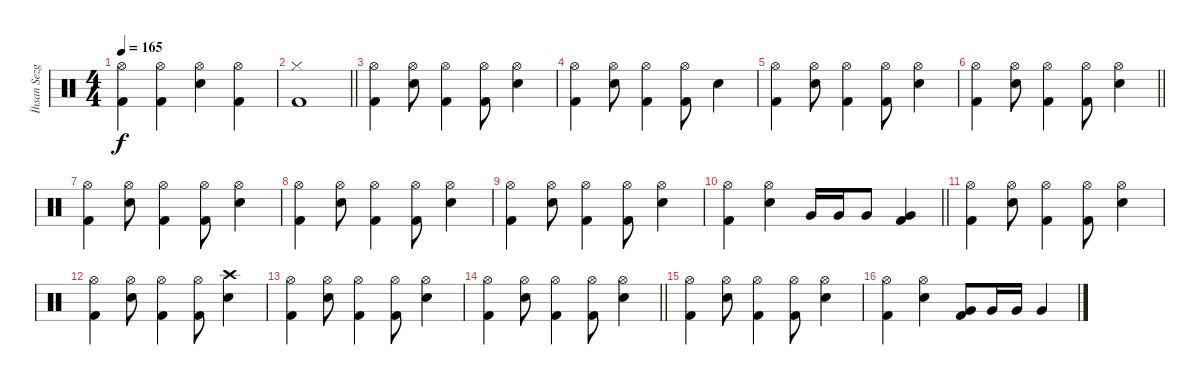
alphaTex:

\track ("İhsan Sezgin" "İhsan Sezg") {instrument percussion}
\staff {score}
\articulation defaults
\ts (4 4)
\tempo 165
\clef neutral
\ks c
("Hi-Hat (open)" "Kick (hit) 2").4{dy f} ("Hi-Hat (open)" "Kick (hit) 2").4 ("Hi-Hat (open)" "Snare (hit) 2").4 ("Hi-Hat (open)" "Kick (hit) 2").4 |
\barLineRight lightlight
("Hi-Hat (closed)" "Kick (hit) 2").1 |
("Hi-Hat (open)" "Kick (hit) 2").4 ("Snare (hit) 2" "Hi-Hat (open)").8 ("Hi-Hat (open)" "Kick (hit) 2").4 ("Hi-Hat (open)" "Kick (hit) 2").8 ("Snare (hit) 2" "Hi-Hat (open)").4 |
("Hi-Hat (open)" "Kick (hit) 2").4 ("Snare (hit) 2" "Hi-Hat (open)").8 ("Hi-Hat (open)" "Kick (hit) 2").4 ("Hi-Hat (open)" "Kick (hit) 2").8 "Snare (hit) 2".4 |
("Hi-Hat (open)" "Kick (hit) 2").4 ("Snare (hit) 2" "Hi-Hat (open)").8 ("Hi-Hat (open)" "Kick (hit) 2").4 ("Hi-Hat (open)" "Kick (hit) 2").8 ("Snare (hit) 2" "Hi-Hat (open)").4 |
\barLineRight lightlight
("Hi-Hat (open)" "Kick (hit) 2").4 ("Snare (hit) 2" "Hi-Hat (open)").8 ("Hi-Hat (open)" "Kick (hit) 2").4 ("Hi-Hat (open)" "Kick (hit) 2").8 ("Snare (hit) 2" "Hi-Hat (open)").4 |
("Hi-Hat (open)" "Kick (hit) 2").4 ("Snare (hit) 2" "Hi-Hat (open)").8 ("Hi-Hat (open)" "Kick (hit) 2").4 ("Hi-Hat (open)" "Kick (hit) 2").8 ("Snare (hit) 2" "Hi-Hat (open)").4 |
("Hi-Hat (open)" "Kick (hit) 2").4 ("Snare (hit) 2" "Hi-Hat (open)").8 ("Hi-Hat (open)" "Kick (hit) 2").4 ("Hi-Hat (open)" "Kick (hit) 2").8 ("Snare (hit) 2" "Hi-Hat (open)").4 |
("Hi-Hat (open)" "Kick (hit) 2").4 ("Snare (hit) 2" "Hi-Hat (open)").8 ("Hi-Hat (open)" "Kick (hit) 2").4 ("Hi-Hat (open)" "Kick (hit) 2").8 ("Snare (hit) 2" "Hi-Hat (open)").4 |
\barLineRight lightlight
("Hi-Hat (open)" "Kick (hit) 2").4 ("Snare (hit) 2" "Hi-Hat (open)").4 "Very Low Tom (hit)".16 "Very Low Tom (hit)".16 "Very Low Tom (hit)".8 ("Kick (hit) 2" "Very Low Tom (hit)").4 |
("Hi-Hat (open)" "Kick (hit) 2").4 ("Snare (hit) 2" "Hi-Hat (open)").8 ("Hi-Hat (open)" "Kick (hit) 2").4 ("Hi-Hat (open)" "Kick (hit) 2").8 ("Snare (hit) 2" "Hi-Hat (open)").4 |
("Hi-Hat (open)" "Kick (hit) 2").4 ("Snare (hit) 2" "Hi-Hat (open)").8 ("Hi-Hat (open)" "Kick (hit) 2").4 ("Hi-Hat (open)" "Kick (hit) 2").8 ("Snare (hit) 2" "Crash high (hit)").4 |
("Hi-Hat (open)" "Kick (hit) 2").4 ("Snare (hit) 2" "Hi-Hat (open)").8 ("Hi-Hat (open)" "Kick (hit) 2").4 ("Hi-Hat (open)" "Kick (hit) 2").8 ("Snare (hit) 2" "Hi-Hat (open)").4 |
\barLineRight lightlight
("Hi-Hat (open)" "Kick (hit) 2").4 ("Snare (hit) 2" "Hi-Hat (open)").8 ("Hi-Hat (open)" "Kick (hit) 2").4 ("Hi-Hat (open)" "Kick (hit) 2").8 ("Snare (hit) 2" "Hi-Hat (open)").4 |
("Hi-Hat (open)" "Kick (hit) 2").4 ("Snare (hit) 2" "Hi-Hat (open)").8 ("Hi-Hat (open)" "Kick (hit) 2").4 ("Hi-Hat (open)" "Kick (hit) 2").8 ("Snare (hit) 2" "Hi-Hat (open)").4 |
("Hi-Hat (open)" "Kick (hit) 2").4 ("Snare (hit) 2" "Hi-Hat (open)").4 ("Kick (hit) 2" "Very Low Tom (hit)").8 "Very Low Tom (hit)".16 "Very Low Tom (hit)".16 "Very Low Tom (hit)".4
